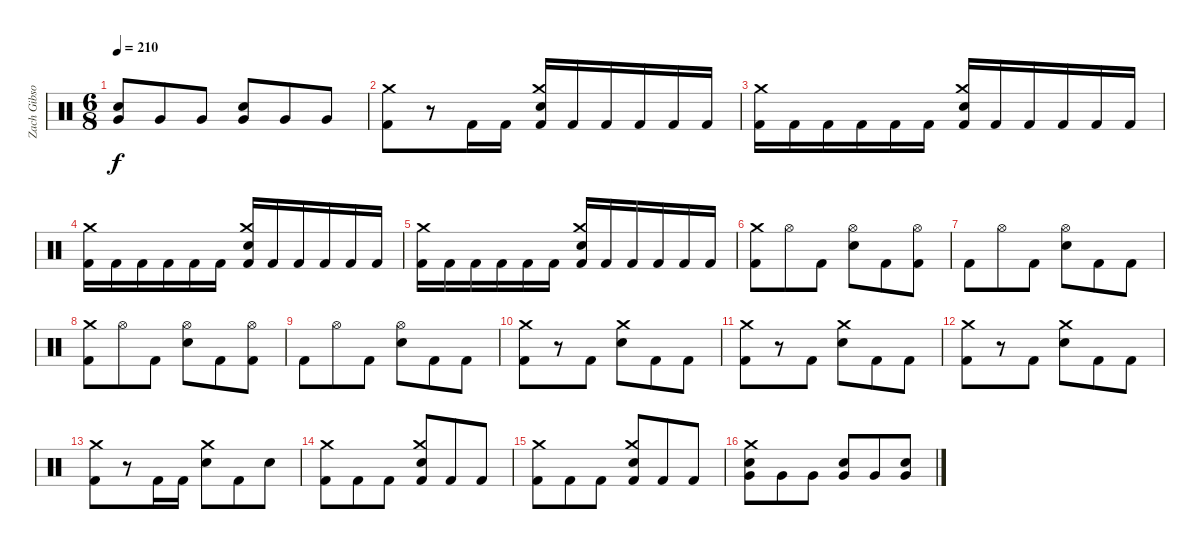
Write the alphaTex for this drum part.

\track ("Zach Gibson" "Zach Gibso") {instrument percussion}
\staff {score}
\articulation defaults
\ts (6 8)
\tempo 210
\clef neutral
\ks c
("Snare (hit) 2" "Very Low Tom (hit)").8{dy f} "Very Low Tom (hit)".8 "Very Low Tom (hit)".8 ("Snare (hit) 2" "Very Low Tom (hit)").8 "Very Low Tom (hit)".8 "Very Low Tom (hit)".8 |
("Crash medium (hit)" "Kick (hit) 2").8 r.8 "Kick (hit) 2".16 "Kick (hit) 2".16 ("Crash medium (hit)" "Snare (hit) 2" "Kick (hit) 2").16 "Kick (hit) 2".16 "Kick (hit) 2".16 "Kick (hit) 2".16 "Kick (hit) 2".16 "Kick (hit) 2".16 |
("Crash medium (hit)" "Kick (hit) 2").16 "Kick (hit) 2".16 "Kick (hit) 2".16 "Kick (hit) 2".16 "Kick (hit) 2".16 "Kick (hit) 2".16 ("Crash medium (hit)" "Snare (hit) 2" "Kick (hit) 2").16 "Kick (hit) 2".16 "Kick (hit) 2".16 "Kick (hit) 2".16 "Kick (hit) 2".16 "Kick (hit) 2".16 |
("Crash medium (hit)" "Kick (hit) 2").16 "Kick (hit) 2".16 "Kick (hit) 2".16 "Kick (hit) 2".16 "Kick (hit) 2".16 "Kick (hit) 2".16 ("Crash medium (hit)" "Snare (hit) 2" "Kick (hit) 2").16 "Kick (hit) 2".16 "Kick (hit) 2".16 "Kick (hit) 2".16 "Kick (hit) 2".16 "Kick (hit) 2".16 |
("Crash medium (hit)" "Kick (hit) 2").16 "Kick (hit) 2".16 "Kick (hit) 2".16 "Kick (hit) 2".16 "Kick (hit) 2".16 "Kick (hit) 2".16 ("Crash medium (hit)" "Snare (hit) 2" "Kick (hit) 2").16 "Kick (hit) 2".16 "Kick (hit) 2".16 "Kick (hit) 2".16 "Kick (hit) 2".16 "Kick (hit) 2".16 |
("Crash medium (hit)" "Kick (hit) 2").8 "Hi-Hat (open)".8 "Kick (hit) 2".8 ("Hi-Hat (open)" "Snare (hit) 2").8 "Kick (hit) 2".8 ("Hi-Hat (open)" "Kick (hit) 2").8 |
"Kick (hit) 2".8 "Hi-Hat (open)".8 "Kick (hit) 2".8 ("Hi-Hat (open)" "Snare (hit) 2").8 "Kick (hit) 2".8 "Kick (hit) 2".8 |
("Crash medium (hit)" "Kick (hit) 2").8 "Hi-Hat (open)".8 "Kick (hit) 2".8 ("Hi-Hat (open)" "Snare (hit) 2").8 "Kick (hit) 2".8 ("Hi-Hat (open)" "Kick (hit) 2").8 |
"Kick (hit) 2".8 "Hi-Hat (open)".8 "Kick (hit) 2".8 ("Hi-Hat (open)" "Snare (hit) 2").8 "Kick (hit) 2".8 "Kick (hit) 2".8 |
("Crash medium (hit)" "Kick (hit) 2").8 r.8 "Kick (hit) 2".8 ("Crash medium (hit)" "Snare (hit) 2").8 "Kick (hit) 2".8 "Kick (hit) 2".8 |
("Crash medium (hit)" "Kick (hit) 2").8 r.8 "Kick (hit) 2".8 ("Crash medium (hit)" "Snare (hit) 2").8 "Kick (hit) 2".8 "Kick (hit) 2".8 |
("Crash medium (hit)" "Kick (hit) 2").8 r.8 "Kick (hit) 2".8 ("Crash medium (hit)" "Snare (hit) 2").8 "Kick (hit) 2".8 "Kick (hit) 2".8 |
("Crash medium (hit)" "Kick (hit) 2").8 r.8 "Kick (hit) 2".16 "Kick (hit) 2".16 ("Crash medium (hit)" "Snare (hit) 2").8 "Kick (hit) 2".8 "Snare (hit) 2".8 |
("Crash medium (hit)" "Kick (hit) 2").8 "Kick (hit) 2".8 "Kick (hit) 2".8 ("Crash medium (hit)" "Snare (hit) 2" "Kick (hit) 2").8 "Kick (hit) 2".8 "Kick (hit) 2".8 |
("Crash medium (hit)" "Kick (hit) 2").8 "Kick (hit) 2".8 "Kick (hit) 2".8 ("Crash medium (hit)" "Snare (hit) 2" "Kick (hit) 2").8 "Kick (hit) 2".8 "Kick (hit) 2".8 |
("Crash medium (hit)" "Snare (hit) 2" "Very Low Tom (hit)").8 "Very Low Tom (hit)".8 "Very Low Tom (hit)".8 ("Snare (hit) 2" "Very Low Tom (hit)").8 "Very Low Tom (hit)".8 ("Snare (hit) 2" "Very Low Tom (hit)").8
